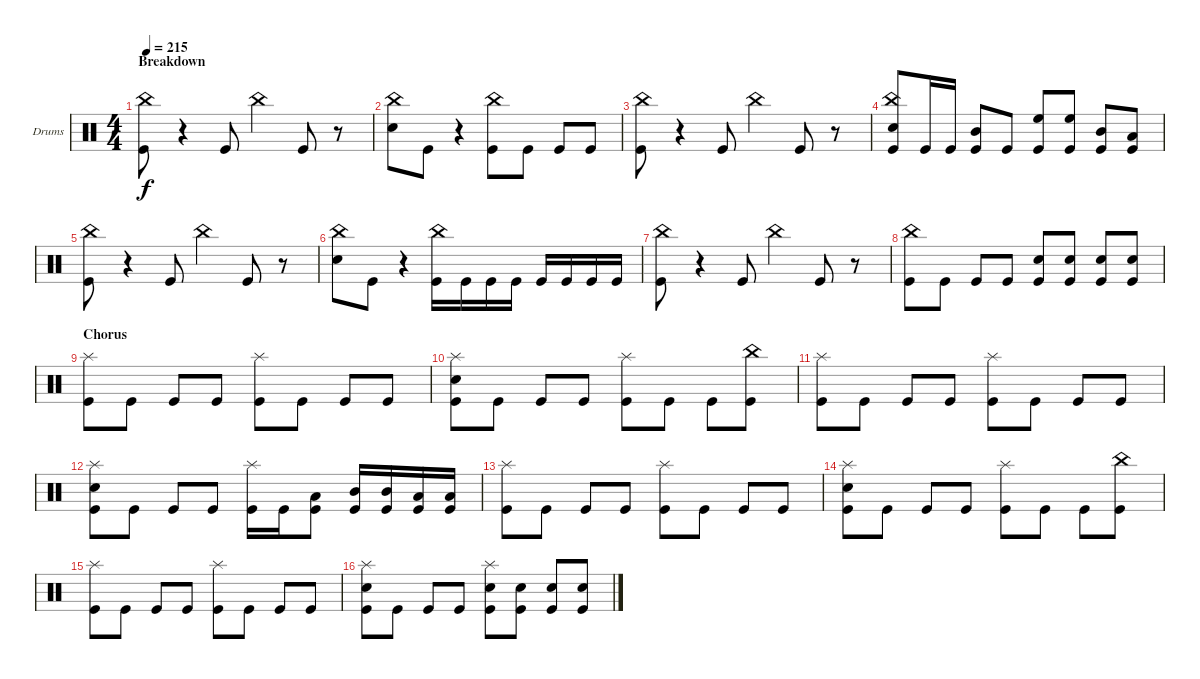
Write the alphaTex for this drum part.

\defaultSystemsLayout 4
\bracketExtendMode groupsimilarinstruments
\firstSystemTrackNameOrientation horizontal
\otherSystemsTrackNameOrientation horizontal
\track ("Drumkit" "Drums") {instrument percussion}
\staff {score}
\articulation defaults
\ts (4 4)
\section ("" "Breakdown")
\tempo 215
\clef neutral
\ks c
("Kick (hit)" "China (hit)").8{dy f} r.4 "Kick (hit)".8 "China (hit)".4 "Kick (hit)".8 r.8 |
("China (hit)" "Snare (hit) 2").8 "Kick (hit)".8 r.4 ("Kick (hit)" "China (hit)").8 "Kick (hit)".8 "Kick (hit)".8 "Kick (hit)".8 |
("Kick (hit)" "China (hit)").8 r.4 "Kick (hit)".8 "China (hit)".4 "Kick (hit)".8 r.8 |
("Kick (hit)" "Snare (hit) 2" "China (hit)").8 "Kick (hit)".16 "Kick (hit)".16 ("Kick (hit)" "Mid Tom (hit)").8 "Kick (hit)".8 ("Kick (hit)" "High Floor Tom (hit)").8 ("Kick (hit)" "High Floor Tom (hit)").8 ("Kick (hit)" "Mid Tom (hit)").8 ("Kick (hit)" "Low Tom (hit)").8 |
("Kick (hit)" "China (hit)").8 r.4 "Kick (hit)".8 "China (hit)".4 "Kick (hit)".8 r.8 |
("China (hit)" "Snare (hit) 2").8 "Kick (hit)".8 r.4 ("Kick (hit)" "China (hit)").16 "Kick (hit)".16 "Kick (hit)".16 "Kick (hit)".16 "Kick (hit)".16 "Kick (hit)".16 "Kick (hit)".16 "Kick (hit)".16 |
("Kick (hit)" "China (hit)").8 r.4 "Kick (hit)".8 "China (hit)".4 "Kick (hit)".8 r.8 |
("Kick (hit)" "China (hit)").8 "Kick (hit)".8 "Kick (hit)".8 "Kick (hit)".8 ("Kick (hit)" "Snare (hit) 2").8 ("Kick (hit)" "Snare (hit) 2").8 ("Kick (hit)" "Snare (hit) 2").8 ("Kick (hit)" "Snare (hit) 2").8 |
\section ("" "Chorus")
("Kick (hit)" "Splash (hit)").8 "Kick (hit)".8 "Kick (hit)".8 "Kick (hit)".8 ("Kick (hit)" "Splash (hit)").8 "Kick (hit)".8 "Kick (hit)".8 "Kick (hit)".8 |
("Kick (hit)" "Splash (hit)" "Snare (hit) 2").8 "Kick (hit)".8 "Kick (hit)".8 "Kick (hit)".8 ("Kick (hit)" "Splash (hit)").8 "Kick (hit)".8 "Kick (hit)".8 ("Kick (hit)" "China (hit)").8 |
("Kick (hit)" "Splash (hit)").8 "Kick (hit)".8 "Kick (hit)".8 "Kick (hit)".8 ("Kick (hit)" "Splash (hit)").8 "Kick (hit)".8 "Kick (hit)".8 "Kick (hit)".8 |
("Kick (hit)" "Splash (hit)" "Snare (hit) 2").8 "Kick (hit)".8 "Kick (hit)".8 "Kick (hit)".8 ("Kick (hit)" "Splash (hit)").16 "Kick (hit)".16 ("Kick (hit)" "Low Tom (hit)").8 ("Kick (hit)" "Mid Tom (hit)").16 ("Kick (hit)" "Mid Tom (hit)").16 ("Kick (hit)" "Low Tom (hit)").16 ("Kick (hit)" "Low Tom (hit)").16 |
("Kick (hit)" "Splash (hit)").8 "Kick (hit)".8 "Kick (hit)".8 "Kick (hit)".8 ("Kick (hit)" "Splash (hit)").8 "Kick (hit)".8 "Kick (hit)".8 "Kick (hit)".8 |
("Kick (hit)" "Splash (hit)" "Snare (hit) 2").8 "Kick (hit)".8 "Kick (hit)".8 "Kick (hit)".8 ("Kick (hit)" "Splash (hit)").8 "Kick (hit)".8 "Kick (hit)".8 ("Kick (hit)" "China (hit)").8 |
("Kick (hit)" "Splash (hit)").8 "Kick (hit)".8 "Kick (hit)".8 "Kick (hit)".8 ("Kick (hit)" "Splash (hit)").8 "Kick (hit)".8 "Kick (hit)".8 "Kick (hit)".8 |
("Kick (hit)" "Splash (hit)" "Snare (hit) 2").8 "Kick (hit)".8 "Kick (hit)".8 "Kick (hit)".8 ("Kick (hit)" "Splash (hit)" "Snare (hit) 2").8 ("Kick (hit)" "Snare (hit) 2").8 ("Kick (hit)" "Snare (hit) 2").8 ("Kick (hit)" "Snare (hit) 2").8
